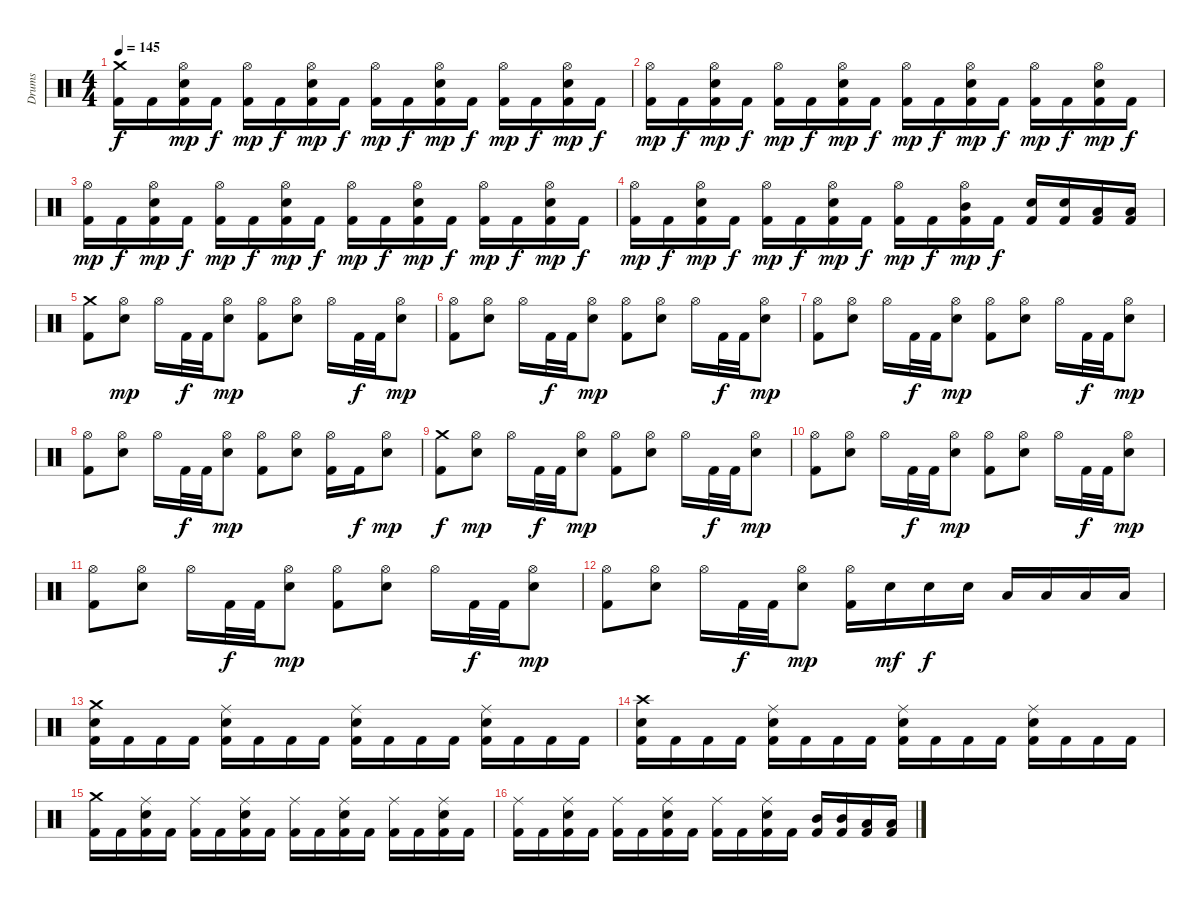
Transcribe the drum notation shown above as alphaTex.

\track ("Drums" "Drums") {instrument percussion}
\staff {score}
\articulation defaults
\ts (4 4)
\tempo 145
\clef neutral
\ks c
("Crash medium (hit)" "Kick (hit) 2").16{dy f} "Kick (hit) 2".16 ("Hi-Hat (open)" "Kick (hit) 2" "Electric Snare (hit)").16{dy mp} "Kick (hit) 2".16{dy f} ("Hi-Hat (open)" "Kick (hit) 2").16{dy mp} "Kick (hit) 2".16{dy f} ("Hi-Hat (open)" "Kick (hit) 2" "Electric Snare (hit)").16{dy mp} "Kick (hit) 2".16{dy f} ("Hi-Hat (open)" "Kick (hit) 2").16{dy mp} "Kick (hit) 2".16{dy f} ("Hi-Hat (open)" "Kick (hit) 2" "Electric Snare (hit)").16{dy mp} "Kick (hit) 2".16{dy f} ("Hi-Hat (open)" "Kick (hit) 2").16{dy mp} "Kick (hit) 2".16{dy f} ("Hi-Hat (open)" "Kick (hit) 2" "Electric Snare (hit)").16{dy mp} "Kick (hit) 2".16{dy f} |
("Hi-Hat (open)" "Kick (hit) 2").16{dy mp} "Kick (hit) 2".16{dy f} ("Hi-Hat (open)" "Kick (hit) 2" "Electric Snare (hit)").16{dy mp} "Kick (hit) 2".16{dy f} ("Hi-Hat (open)" "Kick (hit) 2").16{dy mp} "Kick (hit) 2".16{dy f} ("Hi-Hat (open)" "Kick (hit) 2" "Electric Snare (hit)").16{dy mp} "Kick (hit) 2".16{dy f} ("Hi-Hat (open)" "Kick (hit) 2").16{dy mp} "Kick (hit) 2".16{dy f} ("Hi-Hat (open)" "Kick (hit) 2" "Electric Snare (hit)").16{dy mp} "Kick (hit) 2".16{dy f} ("Hi-Hat (open)" "Kick (hit) 2").16{dy mp} "Kick (hit) 2".16{dy f} ("Hi-Hat (open)" "Kick (hit) 2" "Electric Snare (hit)").16{dy mp} "Kick (hit) 2".16{dy f} |
("Hi-Hat (open)" "Kick (hit) 2").16{dy mp} "Kick (hit) 2".16{dy f} ("Hi-Hat (open)" "Kick (hit) 2" "Electric Snare (hit)").16{dy mp} "Kick (hit) 2".16{dy f} ("Hi-Hat (open)" "Kick (hit) 2").16{dy mp} "Kick (hit) 2".16{dy f} ("Hi-Hat (open)" "Kick (hit) 2" "Electric Snare (hit)").16{dy mp} "Kick (hit) 2".16{dy f} ("Hi-Hat (open)" "Kick (hit) 2").16{dy mp} "Kick (hit) 2".16{dy f} ("Hi-Hat (open)" "Kick (hit) 2" "Electric Snare (hit)").16{dy mp} "Kick (hit) 2".16{dy f} ("Hi-Hat (open)" "Kick (hit) 2").16{dy mp} "Kick (hit) 2".16{dy f} ("Hi-Hat (open)" "Kick (hit) 2" "Electric Snare (hit)").16{dy mp} "Kick (hit) 2".16{dy f} |
("Hi-Hat (open)" "Kick (hit) 2").16{dy mp} "Kick (hit) 2".16{dy f} ("Hi-Hat (open)" "Kick (hit) 2" "Electric Snare (hit)").16{dy mp} "Kick (hit) 2".16{dy f} ("Hi-Hat (open)" "Kick (hit) 2").16{dy mp} "Kick (hit) 2".16{dy f} ("Hi-Hat (open)" "Kick (hit) 2" "Electric Snare (hit)").16{dy mp} "Kick (hit) 2".16{dy f} ("Hi-Hat (open)" "Kick (hit) 2").16{dy mp} "Kick (hit) 2".16{dy f} ("Hi-Hat (open)" "Kick (hit) 2" "Mid Tom (hit)").16{dy mp} "Kick (hit) 2".16{dy f} ("Electric Snare (hit)" "Kick (hit) 2").16 ("Electric Snare (hit)" "Kick (hit) 2").16 ("Low Tom (hit)" "Kick (hit) 2").16 ("Low Tom (hit)" "Kick (hit) 2").16 |
("Crash medium (hit)" "Kick (hit) 2").8 ("Hi-Hat (open)" "Electric Snare (hit)").8{dy mp} "Hi-Hat (open)".16 "Kick (hit) 2".32{dy f} "Kick (hit) 2".32 ("Hi-Hat (open)" "Electric Snare (hit)").8{dy mp} ("Hi-Hat (open)" "Kick (hit) 2").8 ("Hi-Hat (open)" "Electric Snare (hit)").8 "Hi-Hat (open)".16 "Kick (hit) 2".32{dy f} "Kick (hit) 2".32 ("Hi-Hat (open)" "Electric Snare (hit)").8{dy mp} |
("Hi-Hat (open)" "Kick (hit) 2").8 ("Hi-Hat (open)" "Electric Snare (hit)").8 "Hi-Hat (open)".16 "Kick (hit) 2".32{dy f} "Kick (hit) 2".32 ("Hi-Hat (open)" "Electric Snare (hit)").8{dy mp} ("Hi-Hat (open)" "Kick (hit) 2").8 ("Hi-Hat (open)" "Electric Snare (hit)").8 "Hi-Hat (open)".16 "Kick (hit) 2".32{dy f} "Kick (hit) 2".32 ("Hi-Hat (open)" "Electric Snare (hit)").8{dy mp} |
("Hi-Hat (open)" "Kick (hit) 2").8 ("Hi-Hat (open)" "Electric Snare (hit)").8 "Hi-Hat (open)".16 "Kick (hit) 2".32{dy f} "Kick (hit) 2".32 ("Hi-Hat (open)" "Electric Snare (hit)").8{dy mp} ("Hi-Hat (open)" "Kick (hit) 2").8 ("Hi-Hat (open)" "Electric Snare (hit)").8 "Hi-Hat (open)".16 "Kick (hit) 2".32{dy f} "Kick (hit) 2".32 ("Hi-Hat (open)" "Electric Snare (hit)").8{dy mp} |
("Hi-Hat (open)" "Kick (hit) 2").8 ("Hi-Hat (open)" "Electric Snare (hit)").8 "Hi-Hat (open)".16 "Kick (hit) 2".32{dy f} "Kick (hit) 2".32 ("Hi-Hat (open)" "Electric Snare (hit)").8{dy mp} ("Hi-Hat (open)" "Kick (hit) 2").8 ("Hi-Hat (open)" "Electric Snare (hit)").8 ("Hi-Hat (open)" "Kick (hit) 2").16 "Kick (hit) 2".16{dy f} ("Hi-Hat (open)" "Electric Snare (hit)").8{dy mp} |
("Crash medium (hit)" "Kick (hit) 2").8{dy f} ("Hi-Hat (open)" "Electric Snare (hit)").8{dy mp} "Hi-Hat (open)".16 "Kick (hit) 2".32{dy f} "Kick (hit) 2".32 ("Hi-Hat (open)" "Electric Snare (hit)").8{dy mp} ("Hi-Hat (open)" "Kick (hit) 2").8 ("Hi-Hat (open)" "Electric Snare (hit)").8 "Hi-Hat (open)".16 "Kick (hit) 2".32{dy f} "Kick (hit) 2".32 ("Hi-Hat (open)" "Electric Snare (hit)").8{dy mp} |
("Hi-Hat (open)" "Kick (hit) 2").8 ("Hi-Hat (open)" "Electric Snare (hit)").8 "Hi-Hat (open)".16 "Kick (hit) 2".32{dy f} "Kick (hit) 2".32 ("Hi-Hat (open)" "Electric Snare (hit)").8{dy mp} ("Hi-Hat (open)" "Kick (hit) 2").8 ("Hi-Hat (open)" "Electric Snare (hit)").8 "Hi-Hat (open)".16 "Kick (hit) 2".32{dy f} "Kick (hit) 2".32 ("Hi-Hat (open)" "Electric Snare (hit)").8{dy mp} |
("Hi-Hat (open)" "Kick (hit) 2").8 ("Hi-Hat (open)" "Electric Snare (hit)").8 "Hi-Hat (open)".16 "Kick (hit) 2".32{dy f} "Kick (hit) 2".32 ("Hi-Hat (open)" "Electric Snare (hit)").8{dy mp} ("Hi-Hat (open)" "Kick (hit) 2").8 ("Hi-Hat (open)" "Electric Snare (hit)").8 "Hi-Hat (open)".16 "Kick (hit) 2".32{dy f} "Kick (hit) 2".32 ("Hi-Hat (open)" "Electric Snare (hit)").8{dy mp} |
("Hi-Hat (open)" "Kick (hit) 2").8 ("Hi-Hat (open)" "Electric Snare (hit)").8 "Hi-Hat (open)".16 "Kick (hit) 2".32{dy f} "Kick (hit) 2".32 ("Hi-Hat (open)" "Electric Snare (hit)").8{dy mp} ("Hi-Hat (open)" "Kick (hit) 2").16 "Electric Snare (hit)".16{dy mf} "Electric Snare (hit)".16{dy f} "Electric Snare (hit)".16 "Low Tom (hit)".16 "Low Tom (hit)".16 "Low Tom (hit)".16 "Low Tom (hit)".16 |
("Crash medium (hit)" "Kick (hit) 2" "Electric Snare (hit)").16 "Kick (hit) 2".16 "Kick (hit) 2".16 "Kick (hit) 2".16 ("Ride (middle)" "Kick (hit) 2" "Electric Snare (hit)").16 "Kick (hit) 2".16 "Kick (hit) 2".16 "Kick (hit) 2".16 ("Ride (middle)" "Kick (hit) 2" "Electric Snare (hit)").16 "Kick (hit) 2".16 "Kick (hit) 2".16 "Kick (hit) 2".16 ("Ride (middle)" "Kick (hit) 2" "Electric Snare (hit)").16 "Kick (hit) 2".16 "Kick (hit) 2".16 "Kick (hit) 2".16 |
("Crash high (hit)" "Kick (hit) 2" "Electric Snare (hit)").16 "Kick (hit) 2".16 "Kick (hit) 2".16 "Kick (hit) 2".16 ("Ride (middle)" "Kick (hit) 2" "Electric Snare (hit)").16 "Kick (hit) 2".16 "Kick (hit) 2".16 "Kick (hit) 2".16 ("Ride (middle)" "Kick (hit) 2" "Electric Snare (hit)").16 "Kick (hit) 2".16 "Kick (hit) 2".16 "Kick (hit) 2".16 ("Ride (middle)" "Kick (hit) 2" "Electric Snare (hit)").16 "Kick (hit) 2".16 "Kick (hit) 2".16 "Kick (hit) 2".16 |
("Crash medium (hit)" "Kick (hit) 2").16 "Kick (hit) 2".16 ("Ride (middle)" "Kick (hit) 2" "Electric Snare (hit)").16 "Kick (hit) 2".16 ("Ride (middle)" "Kick (hit) 2").16 "Kick (hit) 2".16 ("Ride (middle)" "Kick (hit) 2" "Electric Snare (hit)").16 "Kick (hit) 2".16 ("Ride (middle)" "Kick (hit) 2").16 "Kick (hit) 2".16 ("Ride (middle)" "Kick (hit) 2" "Electric Snare (hit)").16 "Kick (hit) 2".16 ("Ride (middle)" "Kick (hit) 2").16 "Kick (hit) 2".16 ("Ride (middle)" "Kick (hit) 2" "Electric Snare (hit)").16 "Kick (hit) 2".16 |
("Ride (middle)" "Kick (hit) 2").16 "Kick (hit) 2".16 ("Ride (middle)" "Kick (hit) 2" "Electric Snare (hit)").16 "Kick (hit) 2".16 ("Ride (middle)" "Kick (hit) 2").16 "Kick (hit) 2".16 ("Ride (middle)" "Kick (hit) 2" "Electric Snare (hit)").16 "Kick (hit) 2".16 ("Ride (middle)" "Kick (hit) 2").16 "Kick (hit) 2".16 ("Ride (middle)" "Kick (hit) 2" "Electric Snare (hit)").16 "Kick (hit) 2".16 ("Mid Tom (hit)" "Kick (hit) 2").16 ("Mid Tom (hit)" "Kick (hit) 2").16 ("Low Tom (hit)" "Kick (hit) 2").16 ("Low Tom (hit)" "Kick (hit) 2").16
